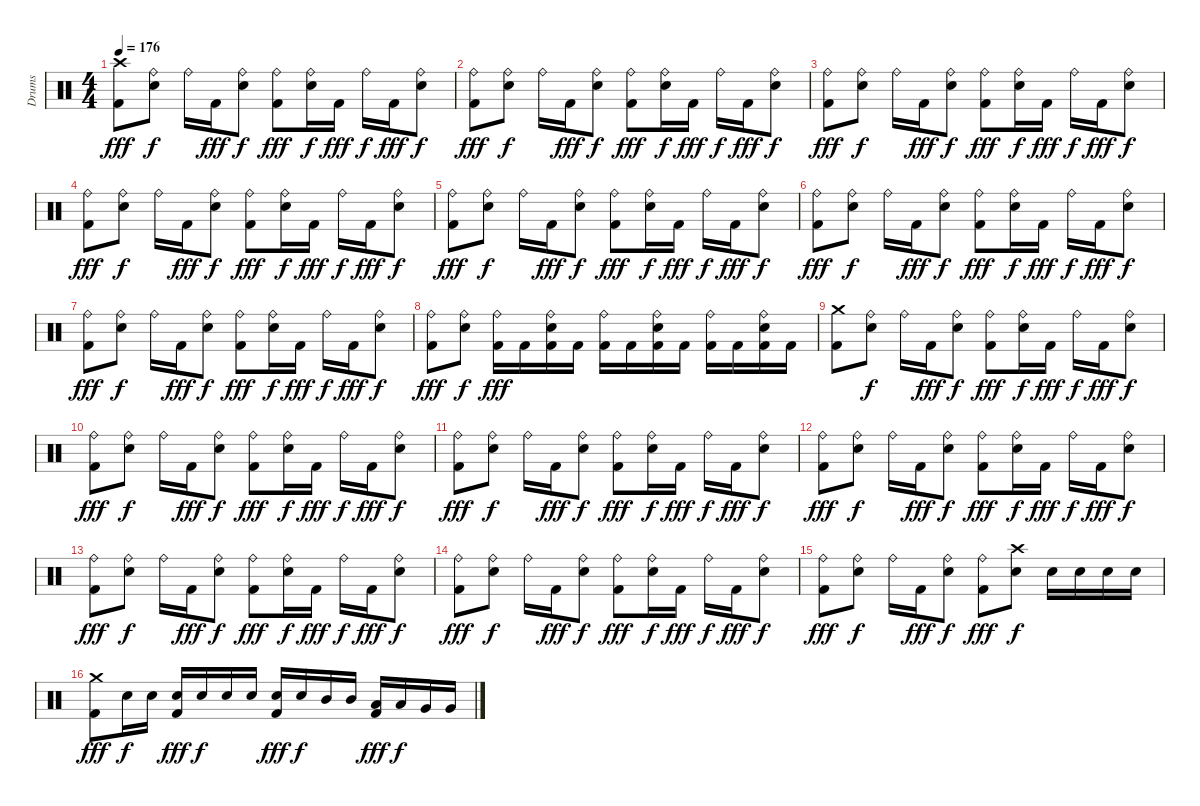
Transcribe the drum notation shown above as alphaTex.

\track ("Drums" "Drums") {instrument percussion}
\staff {score}
\articulation defaults
\ts (4 4)
\tempo 176
\clef neutral
\ks c
("Crash high (hit)" "Kick (hit) 2").8{dy fff} ("Ride (bell)" "Snare (hit) 2").8{dy f} "Ride (bell)".16 "Kick (hit) 2".16{dy fff} ("Ride (bell)" "Snare (hit) 2").8{dy f} ("Ride (bell)" "Kick (hit) 2").8{dy fff} ("Ride (bell)" "Snare (hit) 2").16{dy f} "Kick (hit) 2".16{dy fff} "Ride (bell)".16{dy f} "Kick (hit) 2".16{dy fff} ("Ride (bell)" "Snare (hit) 2").8{dy f} |
("Ride (bell)" "Kick (hit) 2").8{dy fff} ("Ride (bell)" "Snare (hit) 2").8{dy f} "Ride (bell)".16 "Kick (hit) 2".16{dy fff} ("Ride (bell)" "Snare (hit) 2").8{dy f} ("Ride (bell)" "Kick (hit) 2").8{dy fff} ("Ride (bell)" "Snare (hit) 2").16{dy f} "Kick (hit) 2".16{dy fff} "Ride (bell)".16{dy f} "Kick (hit) 2".16{dy fff} ("Ride (bell)" "Snare (hit) 2").8{dy f} |
("Ride (bell)" "Kick (hit) 2").8{dy fff} ("Ride (bell)" "Snare (hit) 2").8{dy f} "Ride (bell)".16 "Kick (hit) 2".16{dy fff} ("Ride (bell)" "Snare (hit) 2").8{dy f} ("Ride (bell)" "Kick (hit) 2").8{dy fff} ("Ride (bell)" "Snare (hit) 2").16{dy f} "Kick (hit) 2".16{dy fff} "Ride (bell)".16{dy f} "Kick (hit) 2".16{dy fff} ("Ride (bell)" "Snare (hit) 2").8{dy f} |
("Ride (bell)" "Kick (hit) 2").8{dy fff} ("Ride (bell)" "Snare (hit) 2").8{dy f} "Ride (bell)".16 "Kick (hit) 2".16{dy fff} ("Ride (bell)" "Snare (hit) 2").8{dy f} ("Ride (bell)" "Kick (hit) 2").8{dy fff} ("Ride (bell)" "Snare (hit) 2").16{dy f} "Kick (hit) 2".16{dy fff} "Ride (bell)".16{dy f} "Kick (hit) 2".16{dy fff} ("Ride (bell)" "Snare (hit) 2").8{dy f} |
("Ride (bell)" "Kick (hit) 2").8{dy fff} ("Ride (bell)" "Snare (hit) 2").8{dy f} "Ride (bell)".16 "Kick (hit) 2".16{dy fff} ("Ride (bell)" "Snare (hit) 2").8{dy f} ("Ride (bell)" "Kick (hit) 2").8{dy fff} ("Ride (bell)" "Snare (hit) 2").16{dy f} "Kick (hit) 2".16{dy fff} "Ride (bell)".16{dy f} "Kick (hit) 2".16{dy fff} ("Ride (bell)" "Snare (hit) 2").8{dy f} |
("Ride (bell)" "Kick (hit) 2").8{dy fff} ("Ride (bell)" "Snare (hit) 2").8{dy f} "Ride (bell)".16 "Kick (hit) 2".16{dy fff} ("Ride (bell)" "Snare (hit) 2").8{dy f} ("Ride (bell)" "Kick (hit) 2").8{dy fff} ("Ride (bell)" "Snare (hit) 2").16{dy f} "Kick (hit) 2".16{dy fff} "Ride (bell)".16{dy f} "Kick (hit) 2".16{dy fff} ("Ride (bell)" "Snare (hit) 2").8{dy f} |
("Ride (bell)" "Kick (hit) 2").8{dy fff} ("Ride (bell)" "Snare (hit) 2").8{dy f} "Ride (bell)".16 "Kick (hit) 2".16{dy fff} ("Ride (bell)" "Snare (hit) 2").8{dy f} ("Ride (bell)" "Kick (hit) 2").8{dy fff} ("Ride (bell)" "Snare (hit) 2").16{dy f} "Kick (hit) 2".16{dy fff} "Ride (bell)".16{dy f} "Kick (hit) 2".16{dy fff} ("Ride (bell)" "Snare (hit) 2").8{dy f} |
("Ride (bell)" "Kick (hit) 2").8{dy fff} ("Ride (bell)" "Snare (hit) 2").8{dy f} ("Ride (bell)" "Kick (hit) 2").16{dy fff} "Kick (hit) 2".16 ("Ride (bell)" "Snare (hit) 2" "Kick (hit) 2").16 "Kick (hit) 2".16 ("Ride (bell)" "Kick (hit) 2").16 "Kick (hit) 2".16 ("Ride (bell)" "Snare (hit) 2" "Kick (hit) 2").16 "Kick (hit) 2".16 ("Ride (bell)" "Kick (hit) 2").16 "Kick (hit) 2".16 ("Ride (bell)" "Snare (hit) 2" "Kick (hit) 2").16 "Kick (hit) 2".16 |
("Crash medium (hit)" "Kick (hit) 2").8 ("Ride (bell)" "Snare (hit) 2").8{dy f} "Ride (bell)".16 "Kick (hit) 2".16{dy fff} ("Ride (bell)" "Snare (hit) 2").8{dy f} ("Ride (bell)" "Kick (hit) 2").8{dy fff} ("Ride (bell)" "Snare (hit) 2").16{dy f} "Kick (hit) 2".16{dy fff} "Ride (bell)".16{dy f} "Kick (hit) 2".16{dy fff} ("Ride (bell)" "Snare (hit) 2").8{dy f} |
("Ride (bell)" "Kick (hit) 2").8{dy fff} ("Ride (bell)" "Snare (hit) 2").8{dy f} "Ride (bell)".16 "Kick (hit) 2".16{dy fff} ("Ride (bell)" "Snare (hit) 2").8{dy f} ("Ride (bell)" "Kick (hit) 2").8{dy fff} ("Ride (bell)" "Snare (hit) 2").16{dy f} "Kick (hit) 2".16{dy fff} "Ride (bell)".16{dy f} "Kick (hit) 2".16{dy fff} ("Ride (bell)" "Snare (hit) 2").8{dy f} |
("Ride (bell)" "Kick (hit) 2").8{dy fff} ("Ride (bell)" "Snare (hit) 2").8{dy f} "Ride (bell)".16 "Kick (hit) 2".16{dy fff} ("Ride (bell)" "Snare (hit) 2").8{dy f} ("Ride (bell)" "Kick (hit) 2").8{dy fff} ("Ride (bell)" "Snare (hit) 2").16{dy f} "Kick (hit) 2".16{dy fff} "Ride (bell)".16{dy f} "Kick (hit) 2".16{dy fff} ("Ride (bell)" "Snare (hit) 2").8{dy f} |
("Ride (bell)" "Kick (hit) 2").8{dy fff} ("Ride (bell)" "Snare (hit) 2").8{dy f} "Ride (bell)".16 "Kick (hit) 2".16{dy fff} ("Ride (bell)" "Snare (hit) 2").8{dy f} ("Ride (bell)" "Kick (hit) 2").8{dy fff} ("Ride (bell)" "Snare (hit) 2").16{dy f} "Kick (hit) 2".16{dy fff} "Ride (bell)".16{dy f} "Kick (hit) 2".16{dy fff} ("Ride (bell)" "Snare (hit) 2").8{dy f} |
("Ride (bell)" "Kick (hit) 2").8{dy fff} ("Ride (bell)" "Snare (hit) 2").8{dy f} "Ride (bell)".16 "Kick (hit) 2".16{dy fff} ("Ride (bell)" "Snare (hit) 2").8{dy f} ("Ride (bell)" "Kick (hit) 2").8{dy fff} ("Ride (bell)" "Snare (hit) 2").16{dy f} "Kick (hit) 2".16{dy fff} "Ride (bell)".16{dy f} "Kick (hit) 2".16{dy fff} ("Ride (bell)" "Snare (hit) 2").8{dy f} |
("Ride (bell)" "Kick (hit) 2").8{dy fff} ("Ride (bell)" "Snare (hit) 2").8{dy f} "Ride (bell)".16 "Kick (hit) 2".16{dy fff} ("Ride (bell)" "Snare (hit) 2").8{dy f} ("Ride (bell)" "Kick (hit) 2").8{dy fff} ("Ride (bell)" "Snare (hit) 2").16{dy f} "Kick (hit) 2".16{dy fff} "Ride (bell)".16{dy f} "Kick (hit) 2".16{dy fff} ("Ride (bell)" "Snare (hit) 2").8{dy f} |
("Ride (bell)" "Kick (hit) 2").8{dy fff} ("Ride (bell)" "Snare (hit) 2").8{dy f} "Ride (bell)".16 "Kick (hit) 2".16{dy fff} ("Ride (bell)" "Snare (hit) 2").8{dy f} ("Ride (bell)" "Kick (hit) 2").8{dy fff} ("Crash high (hit)" "Snare (hit) 2").8{dy f} "Snare (hit) 2".16 "Snare (hit) 2".16 "Snare (hit) 2".16 "Snare (hit) 2".16 |
("Crash medium (hit)" "Kick (hit) 2").8{dy fff} "Snare (hit) 2".16{dy f} "Snare (hit) 2".16 ("Snare (hit) 2" "Kick (hit) 2").16{dy fff} "Snare (hit) 2".16{dy f} "Snare (hit) 2".16 "Snare (hit) 2".16 ("Snare (hit) 2" "Kick (hit) 2").16{dy fff} "Snare (hit) 2".16{dy f} "Mid Tom (hit)".16 "Mid Tom (hit)".16 ("Low Tom (hit)" "Kick (hit) 2").16{dy fff} "Low Tom (hit)".16{dy f} "Very Low Tom (hit)".16 "Very Low Tom (hit)".16
